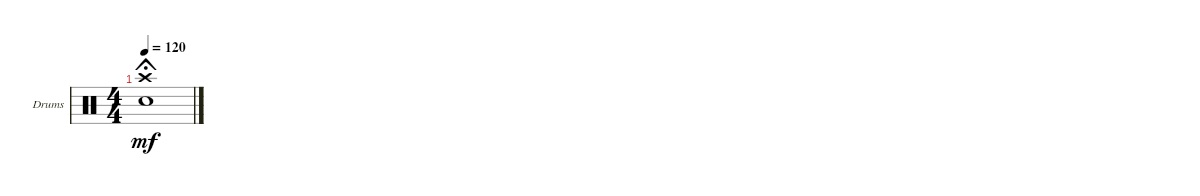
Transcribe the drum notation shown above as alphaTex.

\defaultSystemsLayout 4
\bracketExtendMode groupsimilarinstruments
\firstSystemTrackNameOrientation horizontal
\otherSystemsTrackNameOrientation horizontal
\track ("Drumkit" "Drums") {instrument percussion}
\staff {score}
\articulation defaults
\ts (4 4)
\tempo 120
\clef neutral
\ks c
("Crash high (hit)" "Snare (hit) 2").1{dy mf fermata (short 1)}
